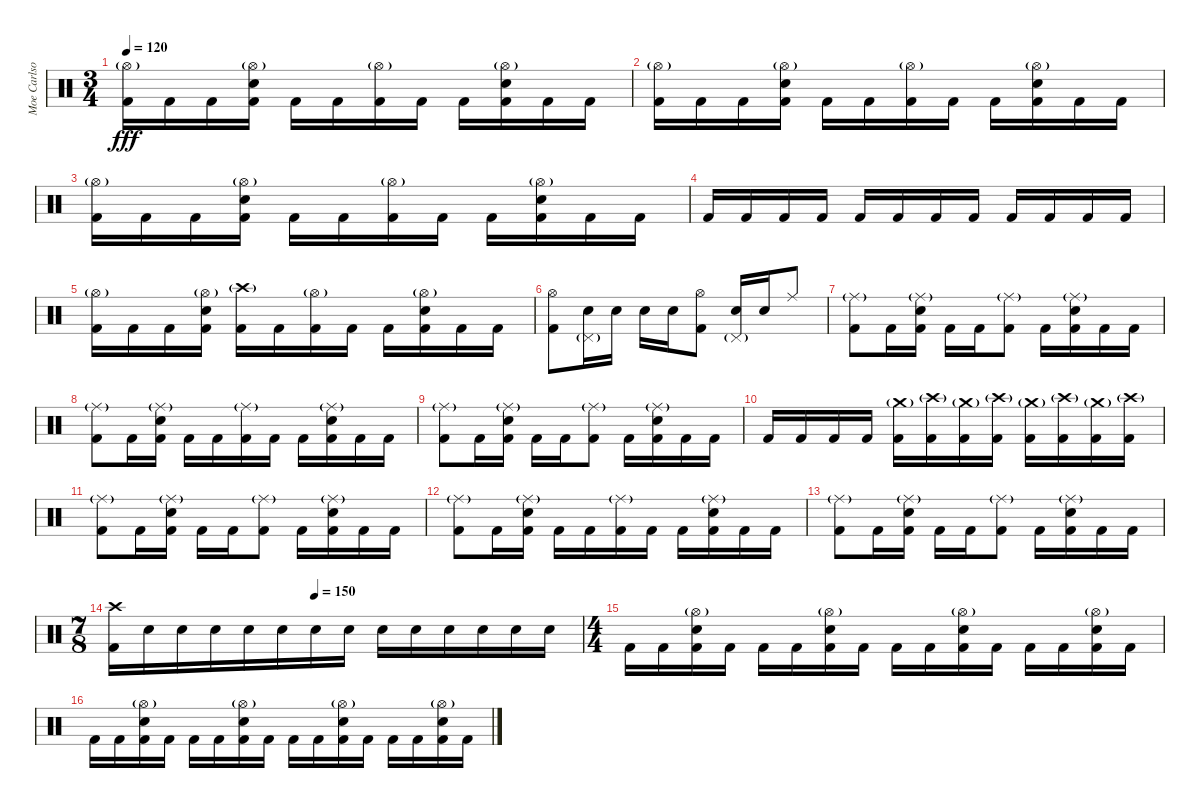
\track ("Moe Carlson" "Moe Carlso") {instrument percussion}
\staff {score}
\articulation defaults
\ts (3 4)
\tempo 120
\clef neutral
\ks c
("Hi-Hat (open)"{g} "Kick (hit) 2").16{dy fff} "Kick (hit) 2".16 "Kick (hit) 2".16 ("Hi-Hat (open)"{g} "Electric Snare (hit)" "Kick (hit) 2").16 "Kick (hit) 2".16 "Kick (hit) 2".16 ("Hi-Hat (open)"{g} "Kick (hit) 2").16 "Kick (hit) 2".16 "Kick (hit) 2".16 ("Hi-Hat (open)"{g} "Electric Snare (hit)" "Kick (hit) 2").16 "Kick (hit) 2".16 "Kick (hit) 2".16 |
("Hi-Hat (open)"{g} "Kick (hit) 2").16 "Kick (hit) 2".16 "Kick (hit) 2".16 ("Hi-Hat (open)"{g} "Electric Snare (hit)" "Kick (hit) 2").16 "Kick (hit) 2".16 "Kick (hit) 2".16 ("Hi-Hat (open)"{g} "Kick (hit) 2").16 "Kick (hit) 2".16 "Kick (hit) 2".16 ("Hi-Hat (open)"{g} "Electric Snare (hit)" "Kick (hit) 2").16 "Kick (hit) 2".16 "Kick (hit) 2".16 |
("Hi-Hat (open)"{g} "Kick (hit) 2").16 "Kick (hit) 2".16 "Kick (hit) 2".16 ("Hi-Hat (open)"{g} "Electric Snare (hit)" "Kick (hit) 2").16 "Kick (hit) 2".16 "Kick (hit) 2".16 ("Hi-Hat (open)"{g} "Kick (hit) 2").16 "Kick (hit) 2".16 "Kick (hit) 2".16 ("Hi-Hat (open)"{g} "Electric Snare (hit)" "Kick (hit) 2").16 "Kick (hit) 2".16 "Kick (hit) 2".16 |
"Kick (hit) 2".16 "Kick (hit) 2".16 "Kick (hit) 2".16 "Kick (hit) 2".16 "Kick (hit) 2".16 "Kick (hit) 2".16 "Kick (hit) 2".16 "Kick (hit) 2".16 "Kick (hit) 2".16 "Kick (hit) 2".16 "Kick (hit) 2".16 "Kick (hit) 2".16 |
("Hi-Hat (open)"{g} "Kick (hit) 2").16 "Kick (hit) 2".16 "Kick (hit) 2".16 ("Hi-Hat (open)"{g} "Electric Snare (hit)" "Kick (hit) 2").16 ("Crash high (hit)"{g} "Kick (hit) 2").16 "Kick (hit) 2".16 ("Hi-Hat (open)"{g} "Kick (hit) 2").16 "Kick (hit) 2".16 "Kick (hit) 2".16 ("Hi-Hat (open)"{g} "Electric Snare (hit)" "Kick (hit) 2").16 "Kick (hit) 2".16 "Kick (hit) 2".16 |
("Hi-Hat (open)" "Kick (hit) 2").8 ("Electric Snare (hit)" "Pedal Hi-Hat (hit)"{g}).16 "Electric Snare (hit)".16 "Electric Snare (hit)".16 "Electric Snare (hit)".16 ("Hi-Hat (open)" "Kick (hit) 2").8 ("Electric Snare (hit)" "Pedal Hi-Hat (hit)"{g}).16 "Electric Snare (hit)".16 "Ride (middle)".8 |
("Ride (middle)"{g} "Kick (hit) 2").8 "Kick (hit) 2".16 ("Ride (middle)"{g} "Electric Snare (hit)" "Kick (hit) 2").16 "Kick (hit) 2".16 "Kick (hit) 2".16 ("Ride (middle)"{g} "Kick (hit) 2").8 "Kick (hit) 2".16 ("Ride (middle)"{g} "Electric Snare (hit)" "Kick (hit) 2").16 "Kick (hit) 2".16 "Kick (hit) 2".16 |
("Ride (middle)"{g} "Kick (hit) 2").8 "Kick (hit) 2".16 ("Ride (middle)"{g} "Electric Snare (hit)" "Kick (hit) 2").16 "Kick (hit) 2".16 "Kick (hit) 2".16 ("Ride (middle)"{g} "Kick (hit) 2").16 "Kick (hit) 2".16 "Kick (hit) 2".16 ("Ride (middle)"{g} "Electric Snare (hit)" "Kick (hit) 2").16 "Kick (hit) 2".16 "Kick (hit) 2".16 |
("Ride (middle)"{g} "Kick (hit) 2").8 "Kick (hit) 2".16 ("Ride (middle)"{g} "Electric Snare (hit)" "Kick (hit) 2").16 "Kick (hit) 2".16 "Kick (hit) 2".16 ("Ride (middle)"{g} "Kick (hit) 2").8 "Kick (hit) 2".16 ("Ride (middle)"{g} "Electric Snare (hit)" "Kick (hit) 2").16 "Kick (hit) 2".16 "Kick (hit) 2".16 |
"Kick (hit) 2".16 "Kick (hit) 2".16 "Kick (hit) 2".16 "Kick (hit) 2".16 ("Crash medium (hit)"{g} "Kick (hit) 2").16 ("Crash high (hit)"{g} "Kick (hit) 2").16 ("Crash medium (hit)"{g} "Kick (hit) 2").16 ("Crash high (hit)"{g} "Kick (hit) 2").16 ("Crash medium (hit)"{g} "Kick (hit) 2").16 ("Crash high (hit)"{g} "Kick (hit) 2").16 ("Crash medium (hit)"{g} "Kick (hit) 2").16 ("Crash high (hit)"{g} "Kick (hit) 2").16 |
("Ride (middle)"{g} "Kick (hit) 2").8 "Kick (hit) 2".16 ("Ride (middle)"{g} "Electric Snare (hit)" "Kick (hit) 2").16 "Kick (hit) 2".16 "Kick (hit) 2".16 ("Ride (middle)"{g} "Kick (hit) 2").8 "Kick (hit) 2".16 ("Ride (middle)"{g} "Electric Snare (hit)" "Kick (hit) 2").16 "Kick (hit) 2".16 "Kick (hit) 2".16 |
("Ride (middle)"{g} "Kick (hit) 2").8 "Kick (hit) 2".16 ("Ride (middle)"{g} "Electric Snare (hit)" "Kick (hit) 2").16 "Kick (hit) 2".16 "Kick (hit) 2".16 ("Ride (middle)"{g} "Kick (hit) 2").16 "Kick (hit) 2".16 "Kick (hit) 2".16 ("Ride (middle)"{g} "Electric Snare (hit)" "Kick (hit) 2").16 "Kick (hit) 2".16 "Kick (hit) 2".16 |
("Ride (middle)"{g} "Kick (hit) 2").8 "Kick (hit) 2".16 ("Ride (middle)"{g} "Electric Snare (hit)" "Kick (hit) 2").16 "Kick (hit) 2".16 "Kick (hit) 2".16 ("Ride (middle)"{g} "Kick (hit) 2").8 "Kick (hit) 2".16 ("Ride (middle)"{g} "Electric Snare (hit)" "Kick (hit) 2").16 "Kick (hit) 2".16 "Kick (hit) 2".16 |
\ts (7 8)
\tempo (150 0.42857142857142855)
("Crash high (hit)" "Kick (hit) 2").16 "Electric Snare (hit)".16 "Electric Snare (hit)".16 "Electric Snare (hit)".16 "Electric Snare (hit)".16 "Electric Snare (hit)".16 "Electric Snare (hit)".16 "Electric Snare (hit)".16 "Electric Snare (hit)".16 "Electric Snare (hit)".16 "Electric Snare (hit)".16 "Electric Snare (hit)".16 "Electric Snare (hit)".16 "Electric Snare (hit)".16 |
\ts (4 4)
"Kick (hit) 2".16 "Kick (hit) 2".16 ("Hi-Hat (open)"{g} "Electric Snare (hit)" "Kick (hit) 2").16 "Kick (hit) 2".16 "Kick (hit) 2".16 "Kick (hit) 2".16 ("Hi-Hat (open)"{g} "Electric Snare (hit)" "Kick (hit) 2").16 "Kick (hit) 2".16 "Kick (hit) 2".16 "Kick (hit) 2".16 ("Hi-Hat (open)"{g} "Electric Snare (hit)" "Kick (hit) 2").16 "Kick (hit) 2".16 "Kick (hit) 2".16 "Kick (hit) 2".16 ("Hi-Hat (open)"{g} "Electric Snare (hit)" "Kick (hit) 2").16 "Kick (hit) 2".16 |
"Kick (hit) 2".16 "Kick (hit) 2".16 ("Hi-Hat (open)"{g} "Electric Snare (hit)" "Kick (hit) 2").16 "Kick (hit) 2".16 "Kick (hit) 2".16 "Kick (hit) 2".16 ("Hi-Hat (open)"{g} "Electric Snare (hit)" "Kick (hit) 2").16 "Kick (hit) 2".16 "Kick (hit) 2".16 "Kick (hit) 2".16 ("Hi-Hat (open)"{g} "Electric Snare (hit)" "Kick (hit) 2").16 "Kick (hit) 2".16 "Kick (hit) 2".16 "Kick (hit) 2".16 ("Hi-Hat (open)"{g} "Electric Snare (hit)" "Kick (hit) 2").16 "Kick (hit) 2".16
